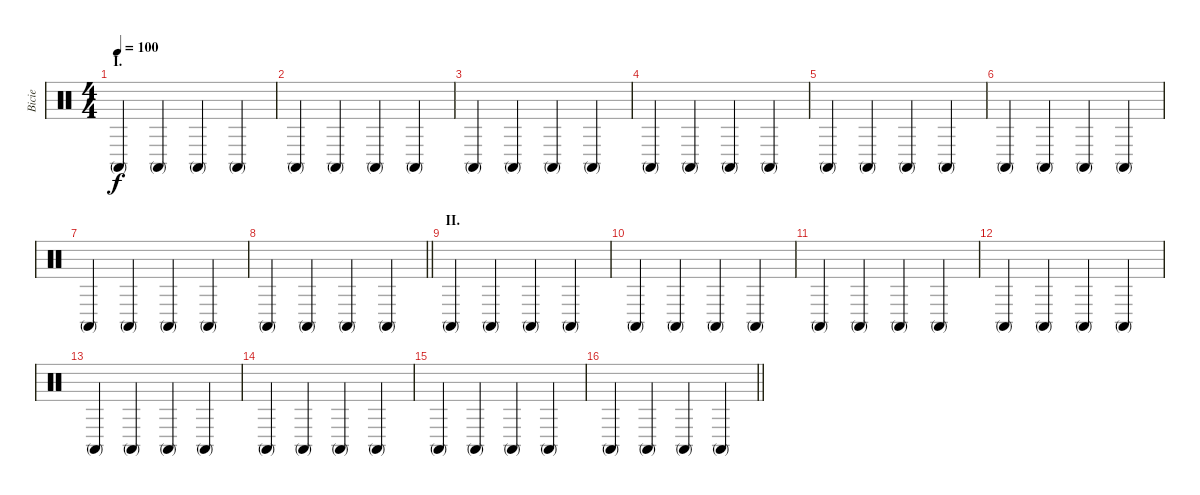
\track ("Bicie" "Bicie") {instrument percussion}
\staff {score}
\articulation defaults
\ts (4 4)
\section ("" "I.")
\tempo 100
\clef neutral
\ks c "Conga high (mute)".4{dy f} "Conga high (mute)".4 "Conga high (mute)".4 "Conga high (mute)".4
|
"Conga high (mute)".4 "Conga high (mute)".4 "Conga high (mute)".4 "Conga high (mute)".4 |
"Conga high (mute)".4 "Conga high (mute)".4 "Conga high (mute)".4 "Conga high (mute)".4 |
"Conga high (mute)".4 "Conga high (mute)".4 "Conga high (mute)".4 "Conga high (mute)".4 |
"Conga high (mute)".4 "Conga high (mute)".4 "Conga high (mute)".4 "Conga high (mute)".4 |
"Conga high (mute)".4 "Conga high (mute)".4 "Conga high (mute)".4 "Conga high (mute)".4 |
"Conga high (mute)".4 "Conga high (mute)".4 "Conga high (mute)".4 "Conga high (mute)".4 |
\barLineRight lightlight "Conga high (mute)".4 "Conga high (mute)".4 "Conga high (mute)".4 "Conga high (mute)".4
|
\section ("" "II.")
"Conga high (mute)".4 "Conga high (mute)".4 "Conga high (mute)".4 "Conga high (mute)".4 |
"Conga high (mute)".4 "Conga high (mute)".4 "Conga high (mute)".4 "Conga high (mute)".4 |
"Conga high (mute)".4 "Conga high (mute)".4 "Conga high (mute)".4 "Conga high (mute)".4 |
"Conga high (mute)".4 "Conga high (mute)".4 "Conga high (mute)".4 "Conga high (mute)".4 |
"Conga high (mute)".4 "Conga high (mute)".4 "Conga high (mute)".4 "Conga high (mute)".4 |
"Conga high (mute)".4 "Conga high (mute)".4 "Conga high (mute)".4 "Conga high (mute)".4 |
"Conga high (mute)".4 "Conga high (mute)".4 "Conga high (mute)".4 "Conga high (mute)".4 |
\barLineRight lightlight "Conga high (mute)".4 "Conga high (mute)".4 "Conga high (mute)".4 "Conga high (mute)".4
